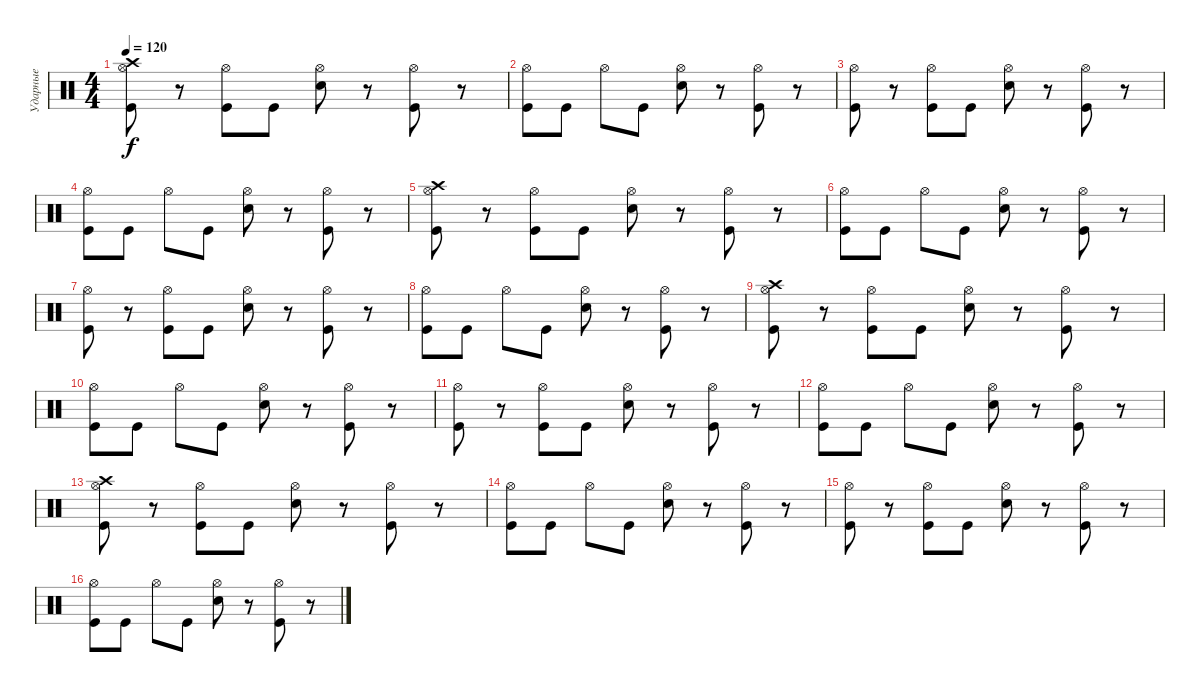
\track ("Ударные" "Ударные") {instrument percussion}
\staff {score}
\articulation defaults
\ts (4 4)
\tempo 120
\clef neutral
\ks c
("Crash high (hit)" "Hi-Hat (open)" "Kick (hit)").8{dy f} r.8 ("Hi-Hat (open)" "Kick (hit)").8 "Kick (hit)".8 ("Hi-Hat (open)" "Electric Snare (hit)").8 r.8 ("Hi-Hat (open)" "Kick (hit)").8 r.8 |
("Hi-Hat (open)" "Kick (hit)").8 "Kick (hit)".8 "Hi-Hat (open)".8 "Kick (hit)".8 ("Hi-Hat (open)" "Electric Snare (hit)").8 r.8 ("Hi-Hat (open)" "Kick (hit)").8 r.8 |
("Hi-Hat (open)" "Kick (hit)").8 r.8 ("Hi-Hat (open)" "Kick (hit)").8 "Kick (hit)".8 ("Hi-Hat (open)" "Electric Snare (hit)").8 r.8 ("Hi-Hat (open)" "Kick (hit)").8 r.8 |
("Hi-Hat (open)" "Kick (hit)").8 "Kick (hit)".8 "Hi-Hat (open)".8 "Kick (hit)".8 ("Hi-Hat (open)" "Electric Snare (hit)").8 r.8 ("Hi-Hat (open)" "Kick (hit)").8 r.8 |
("Crash high (hit)" "Hi-Hat (open)" "Kick (hit)").8 r.8 ("Hi-Hat (open)" "Kick (hit)").8 "Kick (hit)".8 ("Hi-Hat (open)" "Electric Snare (hit)").8 r.8 ("Hi-Hat (open)" "Kick (hit)").8 r.8 |
("Hi-Hat (open)" "Kick (hit)").8 "Kick (hit)".8 "Hi-Hat (open)".8 "Kick (hit)".8 ("Hi-Hat (open)" "Electric Snare (hit)").8 r.8 ("Hi-Hat (open)" "Kick (hit)").8 r.8 |
("Hi-Hat (open)" "Kick (hit)").8 r.8 ("Hi-Hat (open)" "Kick (hit)").8 "Kick (hit)".8 ("Hi-Hat (open)" "Electric Snare (hit)").8 r.8 ("Hi-Hat (open)" "Kick (hit)").8 r.8 |
("Hi-Hat (open)" "Kick (hit)").8 "Kick (hit)".8 "Hi-Hat (open)".8 "Kick (hit)".8 ("Hi-Hat (open)" "Electric Snare (hit)").8 r.8 ("Hi-Hat (open)" "Kick (hit)").8 r.8 |
("Crash high (hit)" "Hi-Hat (open)" "Kick (hit)").8 r.8 ("Hi-Hat (open)" "Kick (hit)").8 "Kick (hit)".8 ("Hi-Hat (open)" "Electric Snare (hit)").8 r.8 ("Hi-Hat (open)" "Kick (hit)").8 r.8 |
("Hi-Hat (open)" "Kick (hit)").8 "Kick (hit)".8 "Hi-Hat (open)".8 "Kick (hit)".8 ("Hi-Hat (open)" "Electric Snare (hit)").8 r.8 ("Hi-Hat (open)" "Kick (hit)").8 r.8 |
("Hi-Hat (open)" "Kick (hit)").8 r.8 ("Hi-Hat (open)" "Kick (hit)").8 "Kick (hit)".8 ("Hi-Hat (open)" "Electric Snare (hit)").8 r.8 ("Hi-Hat (open)" "Kick (hit)").8 r.8 |
("Hi-Hat (open)" "Kick (hit)").8 "Kick (hit)".8 "Hi-Hat (open)".8 "Kick (hit)".8 ("Hi-Hat (open)" "Electric Snare (hit)").8 r.8 ("Hi-Hat (open)" "Kick (hit)").8 r.8 |
("Crash high (hit)" "Hi-Hat (open)" "Kick (hit)").8 r.8 ("Hi-Hat (open)" "Kick (hit)").8 "Kick (hit)".8 ("Hi-Hat (open)" "Electric Snare (hit)").8 r.8 ("Hi-Hat (open)" "Kick (hit)").8 r.8 |
("Hi-Hat (open)" "Kick (hit)").8 "Kick (hit)".8 "Hi-Hat (open)".8 "Kick (hit)".8 ("Hi-Hat (open)" "Electric Snare (hit)").8 r.8 ("Hi-Hat (open)" "Kick (hit)").8 r.8 |
("Hi-Hat (open)" "Kick (hit)").8 r.8 ("Hi-Hat (open)" "Kick (hit)").8 "Kick (hit)".8 ("Hi-Hat (open)" "Electric Snare (hit)").8 r.8 ("Hi-Hat (open)" "Kick (hit)").8 r.8 |
("Hi-Hat (open)" "Kick (hit)").8 "Kick (hit)".8 "Hi-Hat (open)".8 "Kick (hit)".8 ("Hi-Hat (open)" "Electric Snare (hit)").8 r.8 ("Hi-Hat (open)" "Kick (hit)").8 r.8
